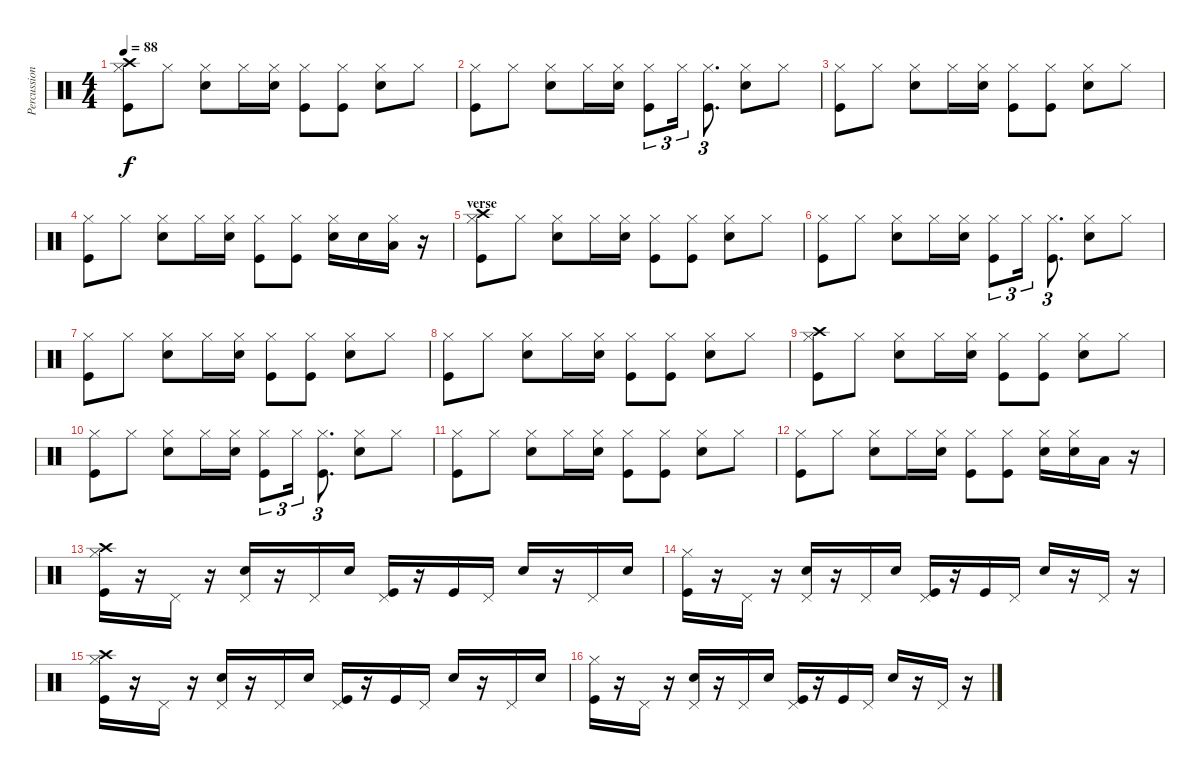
\track ("Percussions" "Percussion") {instrument percussion}
\staff {score}
\articulation defaults
\ts (4 4)
\tempo 88
\clef neutral
\ks c
("Crash high (hit)" "Hi-Hat (closed)" "Kick (hit)").8{dy f} "Hi-Hat (closed)".8 ("Electric Snare (hit)" "Hi-Hat (closed)").8 "Hi-Hat (closed)".16 ("Electric Snare (hit)" "Hi-Hat (closed)").16 ("Hi-Hat (closed)" "Kick (hit)").8 ("Hi-Hat (closed)" "Kick (hit)").8 ("Electric Snare (hit)" "Hi-Hat (closed)").8 "Hi-Hat (closed)".8 |
("Hi-Hat (closed)" "Kick (hit)").8 "Hi-Hat (closed)".8 ("Electric Snare (hit)" "Hi-Hat (closed)").8 "Hi-Hat (closed)".16 ("Electric Snare (hit)" "Hi-Hat (closed)").16 ("Hi-Hat (closed)" "Kick (hit)").8{tu (3 2)} "Hi-Hat (closed)".16{tu (3 2)} ("Hi-Hat (closed)" "Kick (hit)").8{d tu (3 2)} ("Electric Snare (hit)" "Hi-Hat (closed)").8 "Hi-Hat (closed)".8 |
("Hi-Hat (closed)" "Kick (hit)").8 "Hi-Hat (closed)".8 ("Electric Snare (hit)" "Hi-Hat (closed)").8 "Hi-Hat (closed)".16 ("Electric Snare (hit)" "Hi-Hat (closed)").16 ("Hi-Hat (closed)" "Kick (hit)").8 ("Hi-Hat (closed)" "Kick (hit)").8 ("Electric Snare (hit)" "Hi-Hat (closed)").8 "Hi-Hat (closed)".8 |
("Hi-Hat (closed)" "Kick (hit)").8 "Hi-Hat (closed)".8 ("Electric Snare (hit)" "Hi-Hat (closed)").8 "Hi-Hat (closed)".16 ("Electric Snare (hit)" "Hi-Hat (closed)").16 ("Hi-Hat (closed)" "Kick (hit)").8 ("Hi-Hat (closed)" "Kick (hit)").8 ("Electric Snare (hit)" "Hi-Hat (closed)").16 "Snare (hit) 2".16 ("Low Tom (hit)" "Hi-Hat (closed)").16 r.16 |
\section ("" "verse")
("Crash high (hit)" "Hi-Hat (closed)" "Kick (hit)").8{volume 9} "Hi-Hat (closed)".8 ("Electric Snare (hit)" "Hi-Hat (closed)").8 "Hi-Hat (closed)".16 ("Electric Snare (hit)" "Hi-Hat (closed)").16 ("Hi-Hat (closed)" "Kick (hit)").8 ("Hi-Hat (closed)" "Kick (hit)").8 ("Electric Snare (hit)" "Hi-Hat (closed)").8 "Hi-Hat (closed)".8 |
("Hi-Hat (closed)" "Kick (hit)").8 "Hi-Hat (closed)".8 ("Electric Snare (hit)" "Hi-Hat (closed)").8 "Hi-Hat (closed)".16 ("Electric Snare (hit)" "Hi-Hat (closed)").16 ("Hi-Hat (closed)" "Kick (hit)").8{tu (3 2)} "Hi-Hat (closed)".16{tu (3 2)} ("Hi-Hat (closed)" "Kick (hit)").8{d tu (3 2)} ("Electric Snare (hit)" "Hi-Hat (closed)").8 "Hi-Hat (closed)".8 |
("Hi-Hat (closed)" "Kick (hit)").8 "Hi-Hat (closed)".8 ("Electric Snare (hit)" "Hi-Hat (closed)").8 "Hi-Hat (closed)".16 ("Electric Snare (hit)" "Hi-Hat (closed)").16 ("Hi-Hat (closed)" "Kick (hit)").8 ("Hi-Hat (closed)" "Kick (hit)").8 ("Electric Snare (hit)" "Hi-Hat (closed)").8 "Hi-Hat (closed)".8 |
("Hi-Hat (closed)" "Kick (hit)").8 "Hi-Hat (closed)".8 ("Electric Snare (hit)" "Hi-Hat (closed)").8 "Hi-Hat (closed)".16 ("Electric Snare (hit)" "Hi-Hat (closed)").16 ("Hi-Hat (closed)" "Kick (hit)").8 ("Hi-Hat (closed)" "Kick (hit)").8 ("Electric Snare (hit)" "Hi-Hat (closed)").8 "Hi-Hat (closed)".8 |
("Crash high (hit)" "Hi-Hat (closed)" "Kick (hit)").8 "Hi-Hat (closed)".8 ("Electric Snare (hit)" "Hi-Hat (closed)").8 "Hi-Hat (closed)".16 ("Electric Snare (hit)" "Hi-Hat (closed)").16 ("Hi-Hat (closed)" "Kick (hit)").8 ("Hi-Hat (closed)" "Kick (hit)").8 ("Electric Snare (hit)" "Hi-Hat (closed)").8 "Hi-Hat (closed)".8 |
("Hi-Hat (closed)" "Kick (hit)").8 "Hi-Hat (closed)".8 ("Electric Snare (hit)" "Hi-Hat (closed)").8 "Hi-Hat (closed)".16 ("Electric Snare (hit)" "Hi-Hat (closed)").16 ("Hi-Hat (closed)" "Kick (hit)").8{tu (3 2)} "Hi-Hat (closed)".16{tu (3 2)} ("Hi-Hat (closed)" "Kick (hit)").8{d tu (3 2)} ("Electric Snare (hit)" "Hi-Hat (closed)").8 "Hi-Hat (closed)".8 |
("Hi-Hat (closed)" "Kick (hit)").8 "Hi-Hat (closed)".8 ("Electric Snare (hit)" "Hi-Hat (closed)").8 "Hi-Hat (closed)".16 ("Electric Snare (hit)" "Hi-Hat (closed)").16 ("Hi-Hat (closed)" "Kick (hit)").8 ("Hi-Hat (closed)" "Kick (hit)").8 ("Electric Snare (hit)" "Hi-Hat (closed)").8 "Hi-Hat (closed)".8 |
("Hi-Hat (closed)" "Kick (hit)").8 "Hi-Hat (closed)".8 ("Electric Snare (hit)" "Hi-Hat (closed)").8 "Hi-Hat (closed)".16 ("Electric Snare (hit)" "Hi-Hat (closed)").16 ("Hi-Hat (closed)" "Kick (hit)").8 ("Hi-Hat (closed)" "Kick (hit)").8 ("Electric Snare (hit)" "Hi-Hat (closed)").16 ("Electric Snare (hit)" "Hi-Hat (closed)").16 "Low Tom (hit)".16 r.16 |
("Crash high (hit)" "Hi-Hat (closed)" "Kick (hit)").16 r.16 "Pedal Hi-Hat (hit)".16 r.16 ("Electric Snare (hit)" "Pedal Hi-Hat (hit)").16 r.16 "Pedal Hi-Hat (hit)".16 "Electric Snare (hit)".16 ("Kick (hit)" "Pedal Hi-Hat (hit)").16 r.16 "Kick (hit)".16 "Pedal Hi-Hat (hit)".16 "Electric Snare (hit)".16 r.16 "Pedal Hi-Hat (hit)".16 "Electric Snare (hit)".16 |
("Hi-Hat (closed)" "Kick (hit)").16 r.16 "Pedal Hi-Hat (hit)".16 r.16 ("Electric Snare (hit)" "Pedal Hi-Hat (hit)").16 r.16 "Pedal Hi-Hat (hit)".16 "Electric Snare (hit)".16 ("Kick (hit)" "Pedal Hi-Hat (hit)").16 r.16 "Kick (hit)".16 "Pedal Hi-Hat (hit)".16 "Electric Snare (hit)".16 r.16 "Pedal Hi-Hat (hit)".16 r.16 |
("Crash high (hit)" "Hi-Hat (closed)" "Kick (hit)").16 r.16 "Pedal Hi-Hat (hit)".16 r.16 ("Electric Snare (hit)" "Pedal Hi-Hat (hit)").16 r.16 "Pedal Hi-Hat (hit)".16 "Electric Snare (hit)".16 ("Kick (hit)" "Pedal Hi-Hat (hit)").16 r.16 "Kick (hit)".16 "Pedal Hi-Hat (hit)".16 "Electric Snare (hit)".16 r.16 "Pedal Hi-Hat (hit)".16 "Electric Snare (hit)".16 |
("Hi-Hat (closed)" "Kick (hit)").16 r.16 "Pedal Hi-Hat (hit)".16 r.16 ("Electric Snare (hit)" "Pedal Hi-Hat (hit)").16 r.16 "Pedal Hi-Hat (hit)".16 "Electric Snare (hit)".16 ("Kick (hit)" "Pedal Hi-Hat (hit)").16 r.16 "Kick (hit)".16 "Pedal Hi-Hat (hit)".16 "Electric Snare (hit)".16 r.16 "Pedal Hi-Hat (hit)".16 r.16
